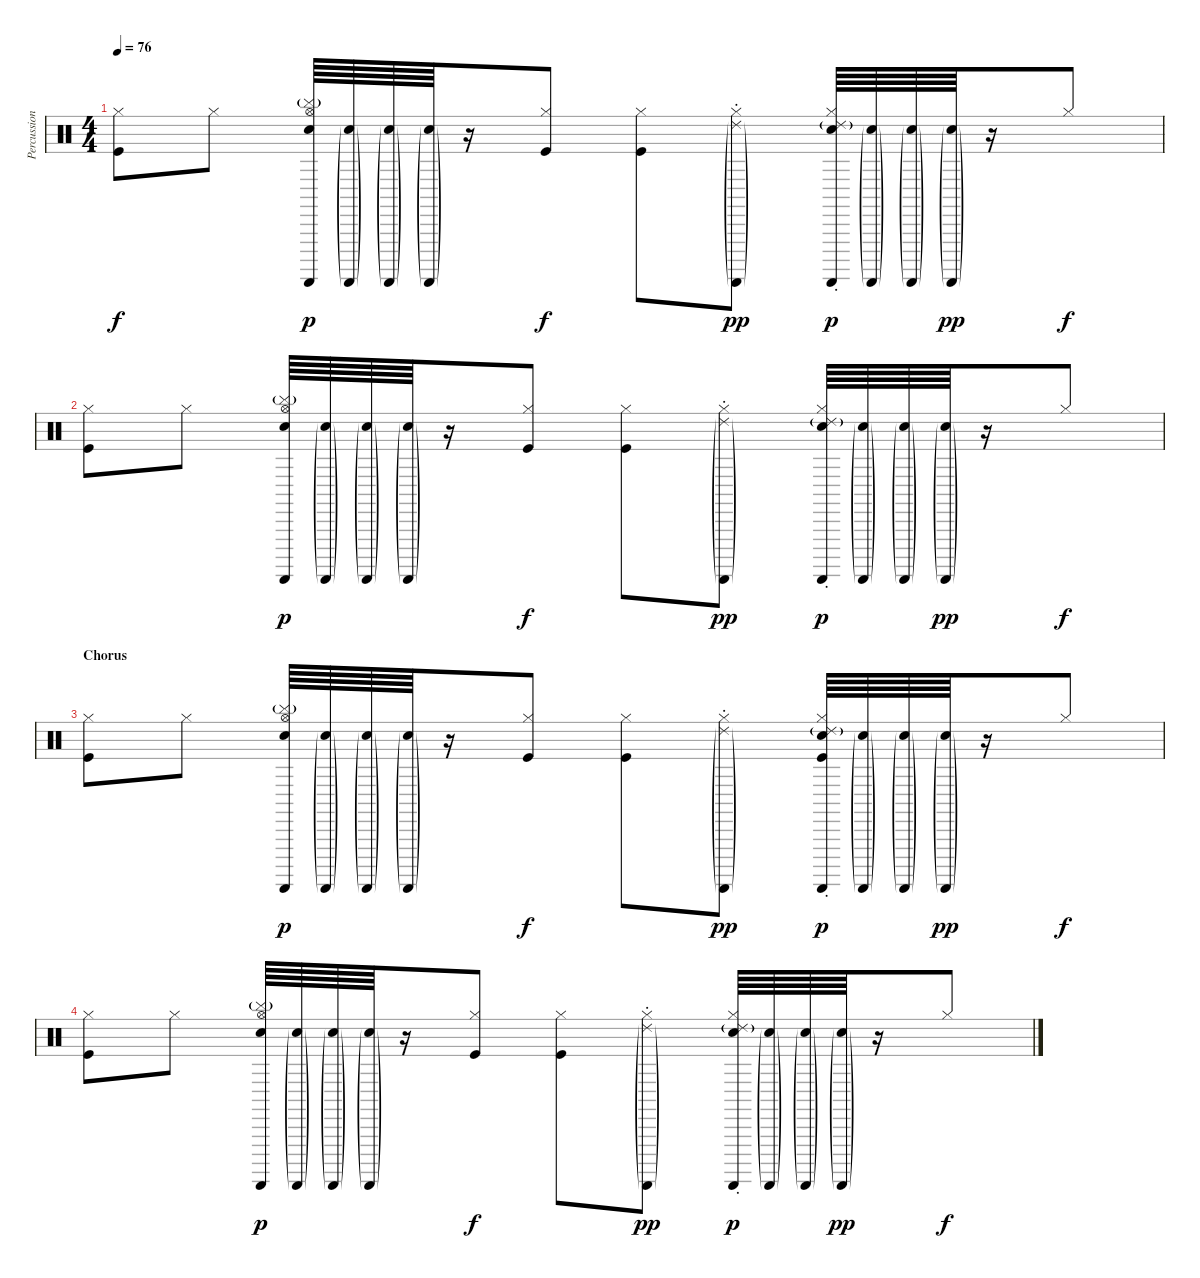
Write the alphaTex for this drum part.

\track ("Percussion" "Percussion") {instrument percussion}
\staff {score}
\articulation defaults
\ts (4 4)
\tempo 76
\clef neutral
\ks c
("Hi-Hat (closed)" "Kick (hit)").8{dy f} "Hi-Hat (closed)".8 ("Hi-Hat (open)" "Cymbal (hit)"{g} "Snare (hit) 2" "Guiro (scrap-return)").64{dy p} ("Snare (hit) 2"{g} "Guiro (scrap-return)"{g}).64 ("Snare (hit) 2"{g} "Guiro (scrap-return)"{g}).64 ("Snare (hit) 2"{g} "Guiro (scrap-return)"{g}).64 r.16 ("Hi-Hat (closed)" "Kick (hit)").8{dy f} ("Hi-Hat (closed)" "Kick (hit)").8 ("Hi-Hat (closed)" "Ride (choke) 2"{g} "Guiro (scrap-return)"{g}).8{dy pp} ("Hi-Hat (closed)" "Ride (choke) 2"{g} "Snare (hit) 2" "Guiro (scrap-return)").64{dy p} ("Snare (hit) 2"{g} "Guiro (scrap-return)"{g}).64 ("Snare (hit) 2"{g} "Guiro (scrap-return)"{g}).64 ("Snare (hit) 2"{g} "Guiro (scrap-return)"{g}).64{dy pp} r.16 "Hi-Hat (closed)".8{dy f} |
("Hi-Hat (closed)" "Kick (hit)").8 "Hi-Hat (closed)".8 ("Hi-Hat (open)" "Cymbal (hit)"{g} "Snare (hit) 2" "Guiro (scrap-return)").64{dy p} ("Snare (hit) 2"{g} "Guiro (scrap-return)"{g}).64 ("Snare (hit) 2"{g} "Guiro (scrap-return)"{g}).64 ("Snare (hit) 2"{g} "Guiro (scrap-return)"{g}).64 r.16 ("Hi-Hat (closed)" "Kick (hit)").8{dy f} ("Hi-Hat (closed)" "Kick (hit)").8 ("Hi-Hat (closed)" "Ride (choke) 2"{g} "Guiro (scrap-return)"{g}).8{dy pp} ("Hi-Hat (closed)" "Ride (choke) 2"{g} "Snare (hit) 2" "Guiro (scrap-return)").64{dy p} ("Snare (hit) 2"{g} "Guiro (scrap-return)"{g}).64 ("Snare (hit) 2"{g} "Guiro (scrap-return)"{g}).64 ("Snare (hit) 2"{g} "Guiro (scrap-return)"{g}).64{dy pp} r.16 "Hi-Hat (closed)".8{dy f} |
\section ("" "Chorus")
("Hi-Hat (closed)" "Kick (hit)").8 "Hi-Hat (closed)".8 ("Hi-Hat (open)" "Cymbal (hit)"{g} "Snare (hit) 2" "Guiro (scrap-return)").64{dy p} ("Snare (hit) 2"{g} "Guiro (scrap-return)"{g}).64 ("Snare (hit) 2"{g} "Guiro (scrap-return)"{g}).64 ("Snare (hit) 2"{g} "Guiro (scrap-return)"{g}).64 r.16 ("Hi-Hat (closed)" "Kick (hit)").8{dy f} ("Hi-Hat (closed)" "Kick (hit)").8 ("Hi-Hat (closed)" "Ride (choke) 2"{g} "Guiro (scrap-return)"{g}).8{dy pp} ("Hi-Hat (closed)" "Ride (choke) 2"{g} "Snare (hit) 2" "Guiro (scrap-return)" "Kick (hit)").64{dy p} ("Snare (hit) 2"{g} "Guiro (scrap-return)"{g}).64 ("Snare (hit) 2"{g} "Guiro (scrap-return)"{g}).64 ("Snare (hit) 2"{g} "Guiro (scrap-return)"{g}).64{dy pp} r.16 "Hi-Hat (closed)".8{dy f} |
("Hi-Hat (closed)" "Kick (hit)").8 "Hi-Hat (closed)".8 ("Hi-Hat (open)" "Cymbal (hit)"{g} "Snare (hit) 2" "Guiro (scrap-return)").64{dy p} ("Snare (hit) 2"{g} "Guiro (scrap-return)"{g}).64 ("Snare (hit) 2"{g} "Guiro (scrap-return)"{g}).64 ("Snare (hit) 2"{g} "Guiro (scrap-return)"{g}).64 r.16 ("Hi-Hat (closed)" "Kick (hit)").8{dy f} ("Hi-Hat (closed)" "Kick (hit)").8 ("Hi-Hat (closed)" "Ride (choke) 2"{g} "Guiro (scrap-return)"{g}).8{dy pp} ("Hi-Hat (closed)" "Ride (choke) 2"{g} "Snare (hit) 2" "Guiro (scrap-return)").64{dy p} ("Snare (hit) 2"{g} "Guiro (scrap-return)"{g}).64 ("Snare (hit) 2"{g} "Guiro (scrap-return)"{g}).64 ("Snare (hit) 2"{g} "Guiro (scrap-return)"{g}).64{dy pp} r.16 "Hi-Hat (closed)".8{dy f}
